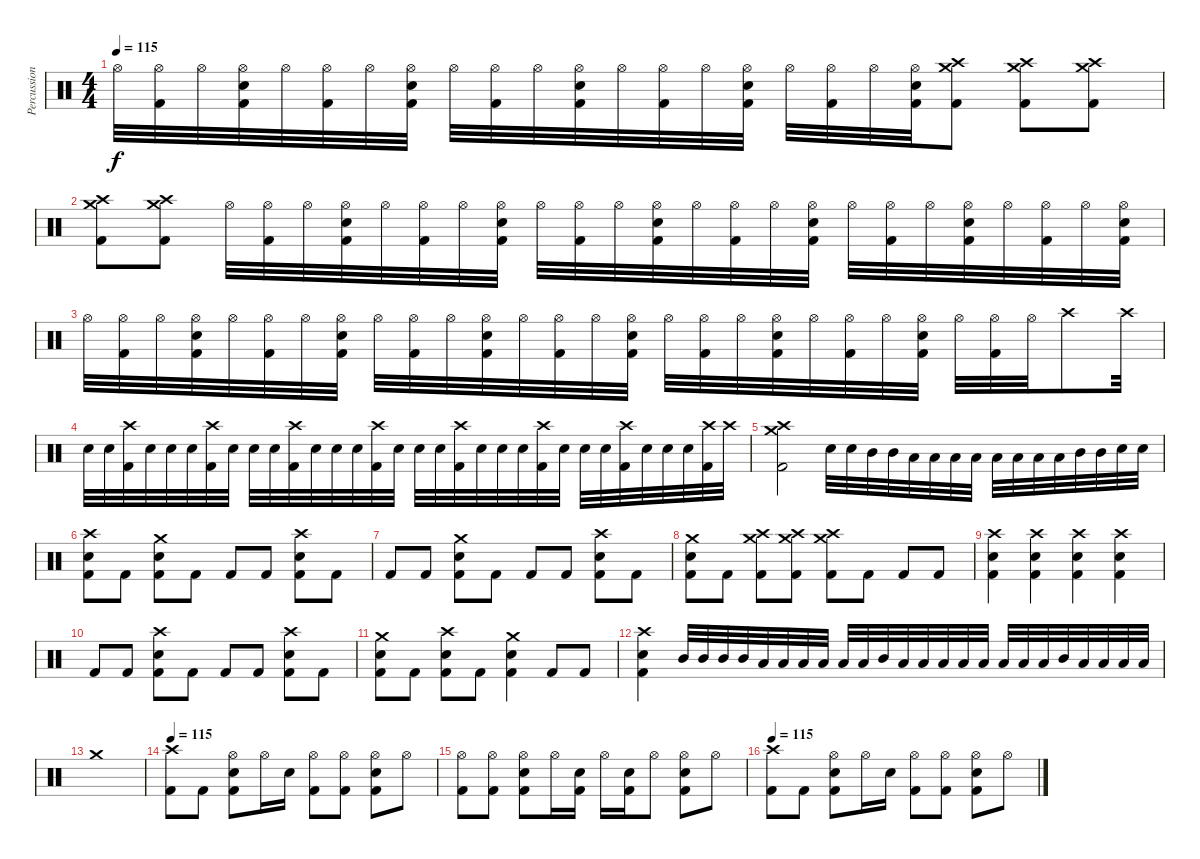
\track ("Percussion" "Percussion") {instrument percussion}
\staff {score}
\articulation defaults
\ts (4 4)
\tempo 115
\clef neutral
\ks c "Hi-Hat (open)".32{dy f}
("Hi-Hat (open)" "Kick (hit) 2").32 "Hi-Hat (open)".32 ("Hi-Hat (open)" "Kick (hit) 2" "Snare (hit) 2").32 "Hi-Hat (open)".32 ("Hi-Hat (open)" "Kick (hit) 2").32 "Hi-Hat (open)".32 ("Hi-Hat (open)" "Kick (hit) 2" "Snare (hit) 2").32 "Hi-Hat (open)".32 ("Hi-Hat (open)" "Kick (hit) 2").32 "Hi-Hat (open)".32 ("Hi-Hat (open)" "Kick (hit) 2" "Snare (hit) 2").32 "Hi-Hat (open)".32 ("Hi-Hat (open)" "Kick (hit) 2").32 "Hi-Hat (open)".32 ("Hi-Hat (open)" "Kick (hit) 2" "Snare (hit) 2").32 "Hi-Hat (open)".32 ("Hi-Hat (open)" "Kick (hit) 2").32 "Hi-Hat (open)".32 ("Hi-Hat (open)" "Kick (hit) 2" "Snare (hit) 2").32 ("Crash medium (hit)" "Crash high (hit)" "Kick (hit) 2").8 ("Crash medium (hit)" "Crash high (hit)" "Kick (hit) 2").8 ("Crash medium (hit)" "Crash high (hit)" "Kick (hit) 2").8 |
("Crash medium (hit)" "Crash high (hit)" "Kick (hit) 2").8 ("Crash medium (hit)" "Crash high (hit)" "Kick (hit) 2").8 "Hi-Hat (open)".32 ("Hi-Hat (open)" "Kick (hit) 2").32 "Hi-Hat (open)".32 ("Hi-Hat (open)" "Kick (hit) 2" "Snare (hit) 2").32 "Hi-Hat (open)".32 ("Hi-Hat (open)" "Kick (hit) 2").32 "Hi-Hat (open)".32 ("Hi-Hat (open)" "Kick (hit) 2" "Snare (hit) 2").32 "Hi-Hat (open)".32 ("Hi-Hat (open)" "Kick (hit) 2").32 "Hi-Hat (open)".32 ("Hi-Hat (open)" "Kick (hit) 2" "Snare (hit) 2").32 "Hi-Hat (open)".32 ("Hi-Hat (open)" "Kick (hit) 2").32 "Hi-Hat (open)".32 ("Hi-Hat (open)" "Kick (hit) 2" "Snare (hit) 2").32 "Hi-Hat (open)".32 ("Hi-Hat (open)" "Kick (hit) 2").32 "Hi-Hat (open)".32 ("Hi-Hat (open)" "Kick (hit) 2" "Snare (hit) 2").32 "Hi-Hat (open)".32 ("Hi-Hat (open)" "Kick (hit) 2").32 "Hi-Hat (open)".32 ("Hi-Hat (open)" "Kick (hit) 2" "Snare (hit) 2").32 |
"Hi-Hat (open)".32 ("Hi-Hat (open)" "Kick (hit) 2").32 "Hi-Hat (open)".32 ("Hi-Hat (open)" "Kick (hit) 2" "Snare (hit) 2").32 "Hi-Hat (open)".32 ("Hi-Hat (open)" "Kick (hit) 2").32 "Hi-Hat (open)".32 ("Hi-Hat (open)" "Kick (hit) 2" "Snare (hit) 2").32 "Hi-Hat (open)".32 ("Hi-Hat (open)" "Kick (hit) 2").32 "Hi-Hat (open)".32 ("Hi-Hat (open)" "Kick (hit) 2" "Snare (hit) 2").32 "Hi-Hat (open)".32 ("Hi-Hat (open)" "Kick (hit) 2").32 "Hi-Hat (open)".32 ("Hi-Hat (open)" "Kick (hit) 2" "Snare (hit) 2").32 "Hi-Hat (open)".32 ("Hi-Hat (open)" "Kick (hit) 2").32 "Hi-Hat (open)".32 ("Hi-Hat (open)" "Kick (hit) 2" "Snare (hit) 2").32 "Hi-Hat (open)".32 ("Hi-Hat (open)" "Kick (hit) 2").32 "Hi-Hat (open)".32 ("Hi-Hat (open)" "Kick (hit) 2" "Snare (hit) 2").32 "Hi-Hat (open)".32 ("Hi-Hat (open)" "Kick (hit) 2").32 "Hi-Hat (open)".32 "Crash high (hit)".8 "Crash high (hit)".32 |
"Snare (hit) 2".32 "Snare (hit) 2".32 ("Crash high (hit)" "Kick (hit) 2").32 "Snare (hit) 2".32 "Snare (hit) 2".32 "Snare (hit) 2".32 ("Crash high (hit)" "Kick (hit) 2").32 "Snare (hit) 2".32 "Snare (hit) 2".32 "Snare (hit) 2".32 ("Crash high (hit)" "Kick (hit) 2").32 "Snare (hit) 2".32 "Snare (hit) 2".32 "Snare (hit) 2".32 ("Crash high (hit)" "Kick (hit) 2").32 "Snare (hit) 2".32 "Snare (hit) 2".32 "Snare (hit) 2".32 ("Crash high (hit)" "Kick (hit) 2").32 "Snare (hit) 2".32 "Snare (hit) 2".32 "Snare (hit) 2".32 ("Crash high (hit)" "Kick (hit) 2").32 "Snare (hit) 2".32 "Snare (hit) 2".32 "Snare (hit) 2".32 ("Crash high (hit)" "Kick (hit) 2").32 "Snare (hit) 2".32 "Snare (hit) 2".32 "Snare (hit) 2".32 ("Crash high (hit)" "Kick (hit) 2").32 "Crash high (hit)".32 |
("Crash medium (hit)" "Crash high (hit)" "Kick (hit) 2").2 "Snare (hit) 2".32 "Snare (hit) 2".32 "Mid Tom (hit)".32 "Mid Tom (hit)".32 "Low Tom (hit)".32 "Low Tom (hit)".32 "Low Floor Tom (hit)".32 "Low Floor Tom (hit)".32 "Low Floor Tom (hit)".32 "Low Floor Tom (hit)".32 "Low Tom (hit)".32 "Low Tom (hit)".32 "Mid Tom (hit)".32 "Mid Tom (hit)".32 "Snare (hit) 2".32 "Snare (hit) 2".32 |
("Crash high (hit)" "Kick (hit) 2" "Snare (hit) 2").8 "Kick (hit) 2".8 ("Crash medium (hit)" "Kick (hit) 2" "Snare (hit) 2").8 "Kick (hit) 2".8 "Kick (hit) 2".8 "Kick (hit) 2".8 ("Crash high (hit)" "Kick (hit) 2" "Snare (hit) 2").8 "Kick (hit) 2".8 |
"Kick (hit) 2".8 "Kick (hit) 2".8 ("Crash medium (hit)" "Kick (hit) 2" "Snare (hit) 2").8 "Kick (hit) 2".8 "Kick (hit) 2".8 "Kick (hit) 2".8 ("Crash high (hit)" "Kick (hit) 2" "Snare (hit) 2").8 "Kick (hit) 2".8 |
("Crash medium (hit)" "Kick (hit) 2" "Snare (hit) 2").8 "Kick (hit) 2".8 ("Crash medium (hit)" "Crash high (hit)" "Kick (hit) 2").8 ("Crash medium (hit)" "Crash high (hit)" "Kick (hit) 2").8 ("Crash medium (hit)" "Crash high (hit)" "Kick (hit) 2").8 "Kick (hit) 2".8 "Kick (hit) 2".8 "Kick (hit) 2".8 |
("Crash high (hit)" "Kick (hit) 2" "Snare (hit) 2").4 ("Crash high (hit)" "Kick (hit) 2" "Snare (hit) 2").4 ("Crash high (hit)" "Kick (hit) 2" "Snare (hit) 2").4 ("Crash high (hit)" "Kick (hit) 2" "Snare (hit) 2").4 |
"Kick (hit) 2".8 "Kick (hit) 2".8 ("Crash high (hit)" "Kick (hit) 2" "Snare (hit) 2").8 "Kick (hit) 2".8 "Kick (hit) 2".8 "Kick (hit) 2".8 ("Crash high (hit)" "Kick (hit) 2" "Snare (hit) 2").8 "Kick (hit) 2".8 |
("Crash medium (hit)" "Kick (hit) 2" "Snare (hit) 2").8 "Kick (hit) 2".8 ("Crash high (hit)" "Kick (hit) 2" "Snare (hit) 2").8 "Kick (hit) 2".8 ("Crash medium (hit)" "Kick (hit) 2" "Snare (hit) 2").4 "Kick (hit) 2".8 "Kick (hit) 2".8 |
("Crash high (hit)" "Kick (hit) 2" "Snare (hit) 2").4 "Mid Tom (hit)".32 "Mid Tom (hit)".32 "Mid Tom (hit)".32 "Mid Tom (hit)".32 "Low Tom (hit)".32 "Low Tom (hit)".32 "Low Tom (hit)".32 "Low Tom (hit)".32 "Low Floor Tom (hit)".32 "Low Floor Tom (hit)".32 "Mid Tom (hit)".32 "Low Floor Tom (hit)".32 "Low Floor Tom (hit)".32 "Low Tom (hit)".32 "Low Floor Tom (hit)".32 "Low Floor Tom (hit)".32 "Low Floor Tom (hit)".32 "Low Floor Tom (hit)".32 "Low Floor Tom (hit)".32 "Mid Tom (hit)".32 "Low Floor Tom (hit)".32 "Low Floor Tom (hit)".32 "Low Tom (hit)".32 "Low Floor Tom (hit)".32 |
"Crash medium (hit)".1 |
\tempo 115
("Crash high (hit)" "Kick (hit) 2").8 "Kick (hit) 2".8 ("Hi-Hat (open)" "Kick (hit) 2" "Snare (hit) 2").8 "Hi-Hat (open)".16 "Snare (hit) 2".16 ("Hi-Hat (open)" "Kick (hit) 2").8 ("Hi-Hat (open)" "Kick (hit) 2").8 ("Hi-Hat (open)" "Kick (hit) 2" "Snare (hit) 2").8 "Hi-Hat (open)".8 |
("Hi-Hat (open)" "Kick (hit) 2").8 ("Hi-Hat (open)" "Kick (hit) 2").8 ("Hi-Hat (open)" "Kick (hit) 2" "Snare (hit) 2").8 "Hi-Hat (open)".16 ("Kick (hit) 2" "Snare (hit) 2").16 "Hi-Hat (open)".16 ("Kick (hit) 2" "Snare (hit) 2").16 "Hi-Hat (open)".8 ("Hi-Hat (open)" "Kick (hit) 2" "Snare (hit) 2").8 "Hi-Hat (open)".8 |
\tempo 115
("Crash high (hit)" "Kick (hit) 2").8 "Kick (hit) 2".8 ("Hi-Hat (open)" "Kick (hit) 2" "Snare (hit) 2").8 "Hi-Hat (open)".16 "Snare (hit) 2".16 ("Hi-Hat (open)" "Kick (hit) 2").8 ("Hi-Hat (open)" "Kick (hit) 2").8 ("Hi-Hat (open)" "Kick (hit) 2" "Snare (hit) 2").8 "Hi-Hat (open)".8
